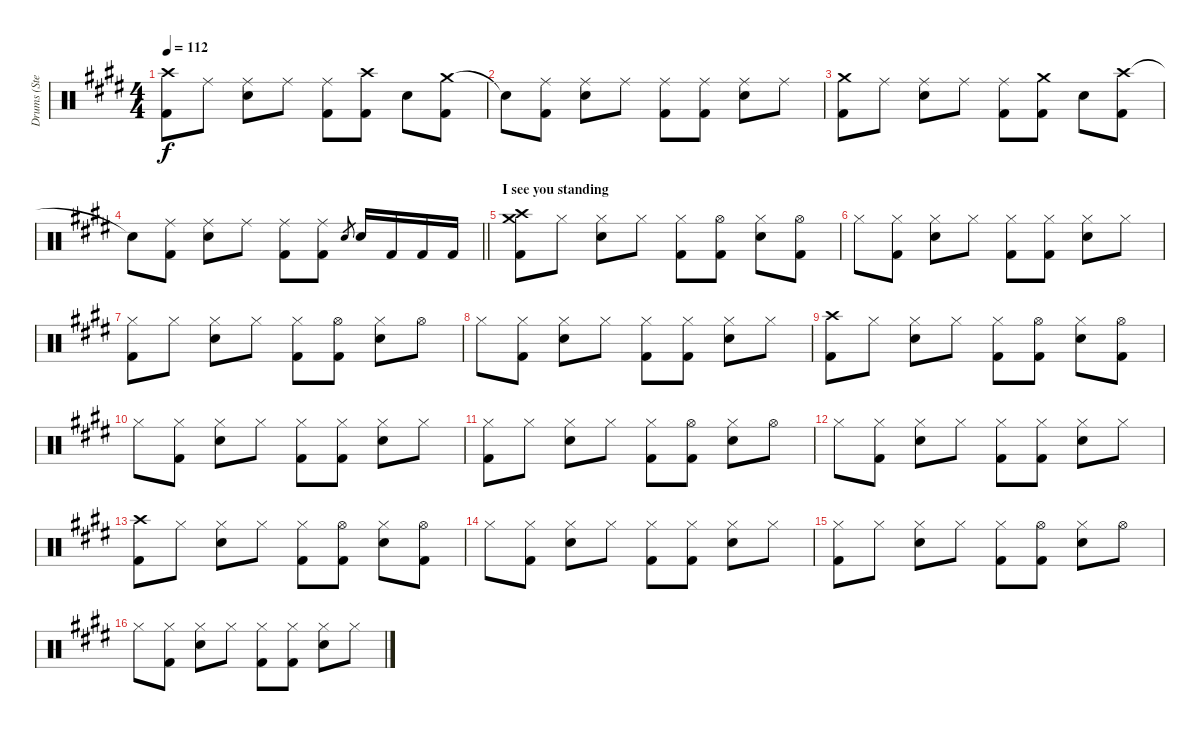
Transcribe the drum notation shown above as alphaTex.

\track ("Drums (Steven)" "Drums (Ste") {instrument percussion}
\staff {score}
\articulation defaults
\ts (4 4)
\tempo 112
\clef neutral
\ks e
("Crash high (hit)" "Kick (hit) 2").8{dy f} "Ride (middle)".8 ("Ride (middle)" "Snare (hit) 2").8 "Ride (middle)".8 ("Ride (middle)" "Kick (hit) 2").8 ("Crash high (hit)" "Kick (hit) 2").8 "Snare (hit) 2".8 ("Crash medium (hit)" "Kick (hit) 2").8 |
"Snare (hit)"{t}.8 ("Ride (middle)" "Kick (hit) 2").8 ("Ride (middle)" "Snare (hit) 2").8 "Ride (middle)".8 ("Ride (middle)" "Kick (hit) 2").8 ("Ride (middle)" "Kick (hit) 2").8 ("Ride (middle)" "Snare (hit) 2").8 "Ride (middle)".8 |
("Crash medium (hit)" "Kick (hit) 2").8 "Ride (middle)".8 ("Ride (middle)" "Snare (hit) 2").8 "Ride (middle)".8 ("Ride (middle)" "Kick (hit) 2").8 ("Crash medium (hit)" "Kick (hit) 2").8 "Snare (hit) 2".8 ("Crash high (hit)" "Kick (hit) 2").8 |
\barLineRight lightlight "Snare (hit)"{t}.8
("Ride (middle)" "Kick (hit) 2").8 ("Ride (middle)" "Snare (hit) 2").8 "Ride (middle)".8 ("Ride (middle)" "Kick (hit) 2").8 ("Ride (middle)" "Kick (hit) 2").8 "Snare (hit) 2".8{gr} "Snare (hit) 2".16 "Kick (hit) 2".16 "Kick (hit) 2".16 "Kick (hit) 2".16 |
\section ("" "I see you standing")
("Crash high (hit)" "Crash medium (hit)" "Kick (hit) 2").8 "Hi-Hat (closed)".8 ("Hi-Hat (closed)" "Snare (hit) 2").8 "Hi-Hat (closed)".8 ("Hi-Hat (closed)" "Kick (hit) 2").8 ("Hi-Hat (open)" "Kick (hit) 2").8 ("Hi-Hat (closed)" "Snare (hit) 2").8 ("Hi-Hat (open)" "Kick (hit) 2").8 |
"Hi-Hat (closed)".8 ("Hi-Hat (closed)" "Kick (hit) 2").8 ("Hi-Hat (closed)" "Snare (hit) 2").8 "Hi-Hat (closed)".8 ("Hi-Hat (closed)" "Kick (hit) 2").8 ("Hi-Hat (closed)" "Kick (hit) 2").8 ("Hi-Hat (closed)" "Snare (hit) 2").8 "Hi-Hat (closed)".8 |
("Hi-Hat (closed)" "Kick (hit) 2").8 "Hi-Hat (closed)".8 ("Hi-Hat (closed)" "Snare (hit) 2").8 "Hi-Hat (closed)".8 ("Hi-Hat (closed)" "Kick (hit) 2").8 ("Hi-Hat (open)" "Kick (hit) 2").8 ("Hi-Hat (closed)" "Snare (hit) 2").8 "Hi-Hat (open)".8 |
"Hi-Hat (closed)".8 ("Hi-Hat (closed)" "Kick (hit) 2").8 ("Hi-Hat (closed)" "Snare (hit) 2").8 "Hi-Hat (closed)".8 ("Hi-Hat (closed)" "Kick (hit) 2").8 ("Hi-Hat (closed)" "Kick (hit) 2").8 ("Hi-Hat (closed)" "Snare (hit) 2").8 "Hi-Hat (closed)".8 |
("Crash high (hit)" "Kick (hit) 2").8 "Hi-Hat (closed)".8 ("Hi-Hat (closed)" "Snare (hit) 2").8 "Hi-Hat (closed)".8 ("Hi-Hat (closed)" "Kick (hit) 2").8 ("Hi-Hat (open)" "Kick (hit) 2").8 ("Hi-Hat (closed)" "Snare (hit) 2").8 ("Hi-Hat (open)" "Kick (hit) 2").8 |
"Hi-Hat (closed)".8 ("Hi-Hat (closed)" "Kick (hit) 2").8 ("Hi-Hat (closed)" "Snare (hit) 2").8 "Hi-Hat (closed)".8 ("Hi-Hat (closed)" "Kick (hit) 2").8 ("Hi-Hat (closed)" "Kick (hit) 2").8 ("Hi-Hat (closed)" "Snare (hit) 2").8 "Hi-Hat (closed)".8 |
("Hi-Hat (closed)" "Kick (hit) 2").8 "Hi-Hat (closed)".8 ("Hi-Hat (closed)" "Snare (hit) 2").8 "Hi-Hat (closed)".8 ("Hi-Hat (closed)" "Kick (hit) 2").8 ("Hi-Hat (open)" "Kick (hit) 2").8 ("Hi-Hat (closed)" "Snare (hit) 2").8 "Hi-Hat (open)".8 |
"Hi-Hat (closed)".8 ("Hi-Hat (closed)" "Kick (hit) 2").8 ("Hi-Hat (closed)" "Snare (hit) 2").8 "Hi-Hat (closed)".8 ("Hi-Hat (closed)" "Kick (hit) 2").8 ("Hi-Hat (closed)" "Kick (hit) 2").8 ("Hi-Hat (closed)" "Snare (hit) 2").8 "Hi-Hat (closed)".8 |
("Crash high (hit)" "Kick (hit) 2").8 "Hi-Hat (closed)".8 ("Hi-Hat (closed)" "Snare (hit) 2").8 "Hi-Hat (closed)".8 ("Hi-Hat (closed)" "Kick (hit) 2").8 ("Hi-Hat (open)" "Kick (hit) 2").8 ("Hi-Hat (closed)" "Snare (hit) 2").8 ("Hi-Hat (open)" "Kick (hit) 2").8 |
"Hi-Hat (closed)".8 ("Hi-Hat (closed)" "Kick (hit) 2").8 ("Hi-Hat (closed)" "Snare (hit) 2").8 "Hi-Hat (closed)".8 ("Hi-Hat (closed)" "Kick (hit) 2").8 ("Hi-Hat (closed)" "Kick (hit) 2").8 ("Hi-Hat (closed)" "Snare (hit) 2").8 "Hi-Hat (closed)".8 |
("Hi-Hat (closed)" "Kick (hit) 2").8 "Hi-Hat (closed)".8 ("Hi-Hat (closed)" "Snare (hit) 2").8 "Hi-Hat (closed)".8 ("Hi-Hat (closed)" "Kick (hit) 2").8 ("Hi-Hat (open)" "Kick (hit) 2").8 ("Hi-Hat (closed)" "Snare (hit) 2").8 "Hi-Hat (open)".8 |
"Hi-Hat (closed)".8 ("Hi-Hat (closed)" "Kick (hit) 2").8 ("Hi-Hat (closed)" "Snare (hit) 2").8 "Hi-Hat (closed)".8 ("Hi-Hat (closed)" "Kick (hit) 2").8 ("Hi-Hat (closed)" "Kick (hit) 2").8 ("Hi-Hat (closed)" "Snare (hit) 2").8 "Hi-Hat (closed)".8
